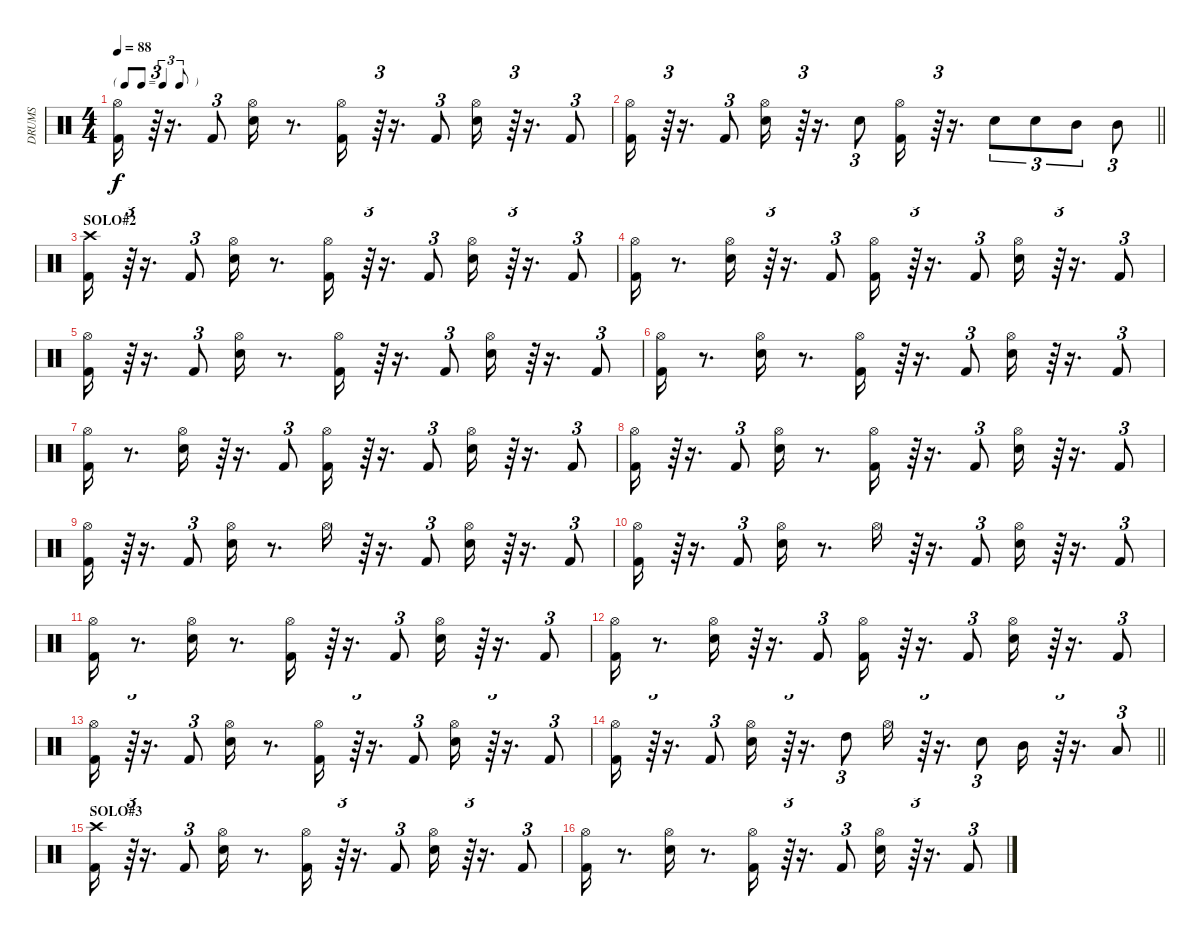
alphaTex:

\track ("DRUMS" "DRUMS") {instrument percussion}
\staff {score}
\articulation defaults
\ts (4 4)
\tf triplet8th
\tempo 88
\clef neutral
\ks c
("Kick (hit) 2" "Hi-Hat (open)").16{dy f} r.64{tu (3 2)} r.16{d} "Kick (hit) 2".8{tu (3 2)} ("Snare (hit) 2" "Hi-Hat (open)").16 r.8{d} ("Kick (hit) 2" "Hi-Hat (open)").16 r.64{tu (3 2)} r.16{d} "Kick (hit) 2".8{tu (3 2)} ("Snare (hit) 2" "Hi-Hat (open)").16 r.64{tu (3 2)} r.16{d} "Kick (hit) 2".8{tu (3 2)} |
\barLineRight lightlight
("Kick (hit) 2" "Hi-Hat (open)").16 r.64{tu (3 2)} r.16{d} "Kick (hit) 2".8{tu (3 2)} ("Snare (hit) 2" "Hi-Hat (open)").16 r.64{tu (3 2)} r.16{d} "Snare (hit) 2".8{tu (3 2)} ("Kick (hit) 2" "Hi-Hat (open)").16 r.64{tu (3 2)} r.16{d} "Snare (hit) 2".8{tu (3 2)} "Snare (hit) 2".8{tu (3 2)} "Mid Tom (hit)".8{tu (3 2)} "Mid Tom (hit)".8{tu (3 2)} |
\section ("" "SOLO#2")
("Kick (hit) 2" "Crash high (hit)").16 r.64{tu (3 2)} r.16{d} "Kick (hit) 2".8{tu (3 2)} ("Snare (hit) 2" "Hi-Hat (open)").16 r.8{d} ("Kick (hit) 2" "Hi-Hat (open)").16 r.64{tu (3 2)} r.16{d} "Kick (hit) 2".8{tu (3 2)} ("Snare (hit) 2" "Hi-Hat (open)").16 r.64{tu (3 2)} r.16{d} "Kick (hit) 2".8{tu (3 2)} |
("Kick (hit) 2" "Hi-Hat (open)").16 r.8{d} ("Snare (hit) 2" "Hi-Hat (open)").16 r.64{tu (3 2)} r.16{d} "Kick (hit) 2".8{tu (3 2)} ("Kick (hit) 2" "Hi-Hat (open)").16 r.64{tu (3 2)} r.16{d} "Kick (hit) 2".8{tu (3 2)} ("Snare (hit) 2" "Hi-Hat (open)").16 r.64{tu (3 2)} r.16{d} "Kick (hit) 2".8{tu (3 2)} |
("Kick (hit) 2" "Hi-Hat (open)").16 r.64{tu (3 2)} r.16{d} "Kick (hit) 2".8{tu (3 2)} ("Snare (hit) 2" "Hi-Hat (open)").16 r.8{d} ("Kick (hit) 2" "Hi-Hat (open)").16 r.64{tu (3 2)} r.16{d} "Kick (hit) 2".8{tu (3 2)} ("Snare (hit) 2" "Hi-Hat (open)").16 r.64{tu (3 2)} r.16{d} "Kick (hit) 2".8{tu (3 2)} |
("Kick (hit) 2" "Hi-Hat (open)").16 r.8{d} ("Snare (hit) 2" "Hi-Hat (open)").16 r.8{d} ("Kick (hit) 2" "Hi-Hat (open)").16 r.64{tu (3 2)} r.16{d} "Kick (hit) 2".8{tu (3 2)} ("Snare (hit) 2" "Hi-Hat (open)").16 r.64{tu (3 2)} r.16{d} "Kick (hit) 2".8{tu (3 2)} |
("Kick (hit) 2" "Hi-Hat (open)").16 r.8{d} ("Snare (hit) 2" "Hi-Hat (open)").16 r.64{tu (3 2)} r.16{d} "Kick (hit) 2".8{tu (3 2)} ("Kick (hit) 2" "Hi-Hat (open)").16 r.64{tu (3 2)} r.16{d} "Kick (hit) 2".8{tu (3 2)} ("Snare (hit) 2" "Hi-Hat (open)").16 r.64{tu (3 2)} r.16{d} "Kick (hit) 2".8{tu (3 2)} |
("Kick (hit) 2" "Hi-Hat (open)").16 r.64{tu (3 2)} r.16{d} "Kick (hit) 2".8{tu (3 2)} ("Snare (hit) 2" "Hi-Hat (open)").16 r.8{d} ("Kick (hit) 2" "Hi-Hat (open)").16 r.64{tu (3 2)} r.16{d} "Kick (hit) 2".8{tu (3 2)} ("Snare (hit) 2" "Hi-Hat (open)").16 r.64{tu (3 2)} r.16{d} "Kick (hit) 2".8{tu (3 2)} |
("Kick (hit) 2" "Hi-Hat (open)").16 r.64{tu (3 2)} r.16{d} "Kick (hit) 2".8{tu (3 2)} ("Snare (hit) 2" "Hi-Hat (open)").16 r.8{d} "Hi-Hat (open)".16 r.64{tu (3 2)} r.16{d} "Kick (hit) 2".8{tu (3 2)} ("Snare (hit) 2" "Hi-Hat (open)").16 r.64{tu (3 2)} r.16{d} "Kick (hit) 2".8{tu (3 2)} |
("Kick (hit) 2" "Hi-Hat (open)").16 r.64{tu (3 2)} r.16{d} "Kick (hit) 2".8{tu (3 2)} ("Snare (hit) 2" "Hi-Hat (open)").16 r.8{d} "Hi-Hat (open)".16 r.64{tu (3 2)} r.16{d} "Kick (hit) 2".8{tu (3 2)} ("Snare (hit) 2" "Hi-Hat (open)").16 r.64{tu (3 2)} r.16{d} "Kick (hit) 2".8{tu (3 2)} |
("Kick (hit) 2" "Hi-Hat (open)").16 r.8{d} ("Snare (hit) 2" "Hi-Hat (open)").16 r.8{d} ("Kick (hit) 2" "Hi-Hat (open)").16 r.64{tu (3 2)} r.16{d} "Kick (hit) 2".8{tu (3 2)} ("Snare (hit) 2" "Hi-Hat (open)").16 r.64{tu (3 2)} r.16{d} "Kick (hit) 2".8{tu (3 2)} |
("Kick (hit) 2" "Hi-Hat (open)").16 r.8{d} ("Snare (hit) 2" "Hi-Hat (open)").16 r.64{tu (3 2)} r.16{d} "Kick (hit) 2".8{tu (3 2)} ("Kick (hit) 2" "Hi-Hat (open)").16 r.64{tu (3 2)} r.16{d} "Kick (hit) 2".8{tu (3 2)} ("Snare (hit) 2" "Hi-Hat (open)").16 r.64{tu (3 2)} r.16{d} "Kick (hit) 2".8{tu (3 2)} |
("Kick (hit) 2" "Hi-Hat (open)").16 r.64{tu (3 2)} r.16{d} "Kick (hit) 2".8{tu (3 2)} ("Snare (hit) 2" "Hi-Hat (open)").16 r.8{d} ("Kick (hit) 2" "Hi-Hat (open)").16 r.64{tu (3 2)} r.16{d} "Kick (hit) 2".8{tu (3 2)} ("Snare (hit) 2" "Hi-Hat (open)").16 r.64{tu (3 2)} r.16{d} "Kick (hit) 2".8{tu (3 2)} |
\barLineRight lightlight
("Kick (hit) 2" "Hi-Hat (open)").16 r.64{tu (3 2)} r.16{d} "Kick (hit) 2".8{tu (3 2)} ("Snare (hit) 2" "Hi-Hat (open)").16 r.64{tu (3 2)} r.16{d} "High Tom (hit)".8{tu (3 2)} "Hi-Hat (open)".16 r.64{tu (3 2)} r.16{d} "Snare (hit) 2".8{tu (3 2)} "Mid Tom (hit)".16 r.64{tu (3 2)} r.16{d} "Low Floor Tom (hit)".8{tu (3 2)} |
\section ("" "SOLO#3")
("Kick (hit) 2" "Crash high (hit)").16 r.64{tu (3 2)} r.16{d} "Kick (hit) 2".8{tu (3 2)} ("Snare (hit) 2" "Hi-Hat (open)").16 r.8{d} ("Kick (hit) 2" "Hi-Hat (open)").16 r.64{tu (3 2)} r.16{d} "Kick (hit) 2".8{tu (3 2)} ("Snare (hit) 2" "Hi-Hat (open)").16 r.64{tu (3 2)} r.16{d} "Kick (hit) 2".8{tu (3 2)} |
("Kick (hit) 2" "Hi-Hat (open)").16 r.8{d} ("Snare (hit) 2" "Hi-Hat (open)").16 r.8{d} ("Kick (hit) 2" "Hi-Hat (open)").16 r.64{tu (3 2)} r.16{d} "Kick (hit) 2".8{tu (3 2)} ("Snare (hit) 2" "Hi-Hat (open)").16 r.64{tu (3 2)} r.16{d} "Kick (hit) 2".8{tu (3 2)}
